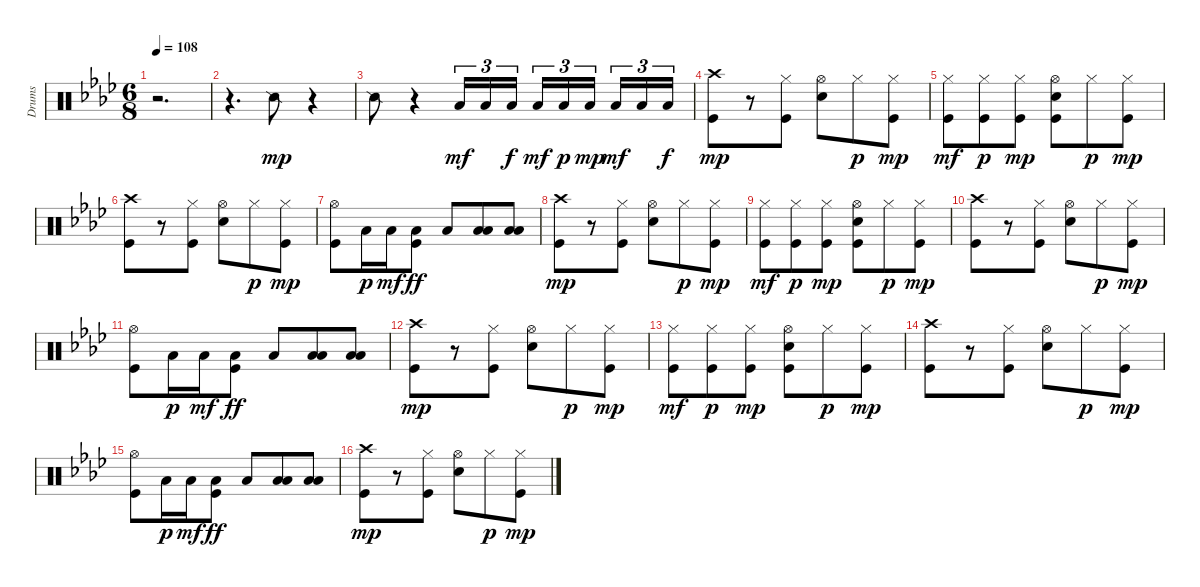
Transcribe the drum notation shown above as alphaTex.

\track ("Drums" "Drums") {instrument percussion}
\staff {score}
\articulation defaults
\ts (6 8)
\tempo 108
\clef neutral
\ks ab
r.2{d dy mf} |
r.4{d} "Snare (side stick) 2".8{dy mp} r.4 |
"Snare (side stick) 2".8 r.4 "Low Tom (hit)".16{tu (3 2) dy mf} "Low Tom (hit)".16{tu (3 2)} "Low Tom (hit)".16{tu (3 2) dy f} "Low Tom (hit)".16{tu (3 2) dy mf} "Low Tom (hit)".16{tu (3 2) dy p} "Low Tom (hit)".16{tu (3 2) dy mp} "Low Tom (hit)".16{tu (3 2) dy mf} "Low Tom (hit)".16{tu (3 2)} "Low Tom (hit)".16{tu (3 2) dy f} |
("Kick (hit)" "Crash high (hit)").8{dy mp} r.8 ("Kick (hit)" "Hi-Hat (closed)").8 ("Electric Snare (hit)" "Hi-Hat (open)").8 "Hi-Hat (closed)".8{dy p} ("Kick (hit)" "Hi-Hat (closed)").8{dy mp} |
("Kick (hit)" "Hi-Hat (closed)").8{dy mf} ("Kick (hit)" "Hi-Hat (closed)").8{dy p} ("Kick (hit)" "Hi-Hat (closed)").8{dy mp} ("Kick (hit)" "Electric Snare (hit)" "Hi-Hat (open)").8 "Hi-Hat (closed)".8{dy p} ("Kick (hit)" "Hi-Hat (closed)").8{dy mp} |
("Kick (hit)" "Crash high (hit)").8 r.8 ("Kick (hit)" "Hi-Hat (closed)").8 ("Electric Snare (hit)" "Hi-Hat (open)").8 "Hi-Hat (closed)".8{dy p} ("Kick (hit)" "Hi-Hat (closed)").8{dy mp} |
("Kick (hit)" "Hi-Hat (open)").8 "Low Tom (hit)".16{dy p} "Low Tom (hit)".16{dy mf} ("Kick (hit)" "Low Tom (hit)").8{dy ff} "Low Tom (hit)".8 ("Low Floor Tom (hit)" "Low Tom (hit)").8 ("Low Floor Tom (hit)" "Low Tom (hit)").8 |
("Kick (hit)" "Crash high (hit)").8{dy mp} r.8 ("Kick (hit)" "Hi-Hat (closed)").8 ("Electric Snare (hit)" "Hi-Hat (open)").8 "Hi-Hat (closed)".8{dy p} ("Kick (hit)" "Hi-Hat (closed)").8{dy mp} |
("Kick (hit)" "Hi-Hat (closed)").8{dy mf} ("Kick (hit)" "Hi-Hat (closed)").8{dy p} ("Kick (hit)" "Hi-Hat (closed)").8{dy mp} ("Kick (hit)" "Electric Snare (hit)" "Hi-Hat (open)").8 "Hi-Hat (closed)".8{dy p} ("Kick (hit)" "Hi-Hat (closed)").8{dy mp} |
("Kick (hit)" "Crash high (hit)").8 r.8 ("Kick (hit)" "Hi-Hat (closed)").8 ("Electric Snare (hit)" "Hi-Hat (open)").8 "Hi-Hat (closed)".8{dy p} ("Kick (hit)" "Hi-Hat (closed)").8{dy mp} |
("Kick (hit)" "Hi-Hat (open)").8 "Low Tom (hit)".16{dy p} "Low Tom (hit)".16{dy mf} ("Kick (hit)" "Low Tom (hit)").8{dy ff} "Low Tom (hit)".8 ("Low Floor Tom (hit)" "Low Tom (hit)").8 ("Low Floor Tom (hit)" "Low Tom (hit)").8 |
("Kick (hit)" "Crash high (hit)").8{dy mp} r.8 ("Kick (hit)" "Hi-Hat (closed)").8 ("Electric Snare (hit)" "Hi-Hat (open)").8 "Hi-Hat (closed)".8{dy p} ("Kick (hit)" "Hi-Hat (closed)").8{dy mp} |
("Kick (hit)" "Hi-Hat (closed)").8{dy mf} ("Kick (hit)" "Hi-Hat (closed)").8{dy p} ("Kick (hit)" "Hi-Hat (closed)").8{dy mp} ("Kick (hit)" "Electric Snare (hit)" "Hi-Hat (open)").8 "Hi-Hat (closed)".8{dy p} ("Kick (hit)" "Hi-Hat (closed)").8{dy mp} |
("Kick (hit)" "Crash high (hit)").8 r.8 ("Kick (hit)" "Hi-Hat (closed)").8 ("Electric Snare (hit)" "Hi-Hat (open)").8 "Hi-Hat (closed)".8{dy p} ("Kick (hit)" "Hi-Hat (closed)").8{dy mp} |
("Kick (hit)" "Hi-Hat (open)").8 "Low Tom (hit)".16{dy p} "Low Tom (hit)".16{dy mf} ("Kick (hit)" "Low Tom (hit)").8{dy ff} "Low Tom (hit)".8 ("Low Floor Tom (hit)" "Low Tom (hit)").8 ("Low Floor Tom (hit)" "Low Tom (hit)").8 |
("Kick (hit)" "Crash high (hit)").8{dy mp} r.8 ("Kick (hit)" "Hi-Hat (closed)").8 ("Electric Snare (hit)" "Hi-Hat (open)").8 "Hi-Hat (closed)".8{dy p} ("Kick (hit)" "Hi-Hat (closed)").8{dy mp}
